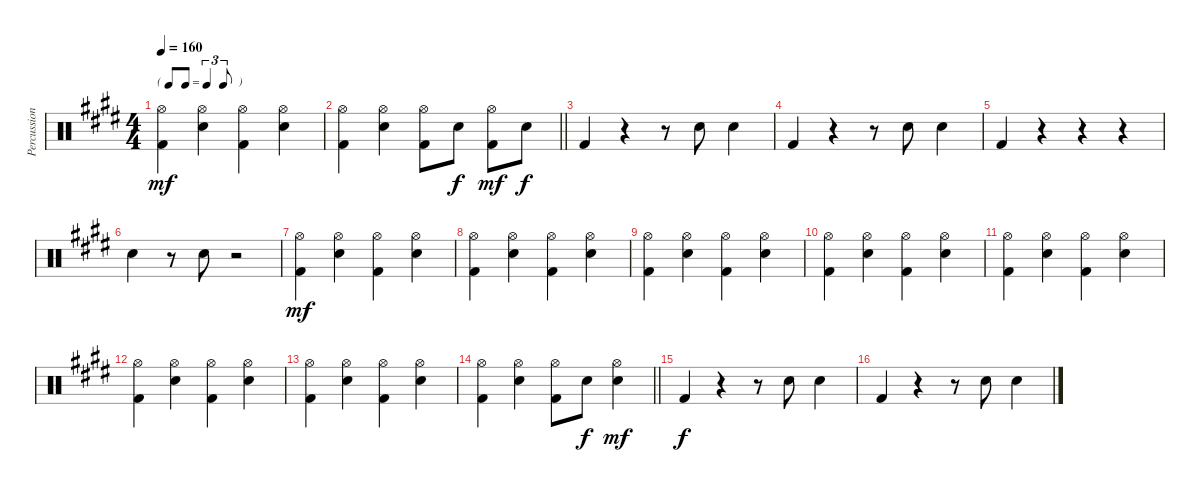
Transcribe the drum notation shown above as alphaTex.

\track ("Percussion" "Percussion") {instrument percussion}
\staff {score}
\articulation defaults
\ts (4 4)
\tf triplet8th
\tempo 160
\clef neutral
\ks e
("Hi-Hat (open)" "Kick (hit) 2").4{dy mf} ("Hi-Hat (open)" "Snare (hit) 2").4 ("Hi-Hat (open)" "Kick (hit) 2").4 ("Hi-Hat (open)" "Snare (hit) 2").4 |
\barLineRight lightlight
("Hi-Hat (open)" "Kick (hit) 2").4 ("Hi-Hat (open)" "Snare (hit) 2").4 ("Hi-Hat (open)" "Kick (hit) 2").8 "Snare (hit) 2".8{dy f} ("Hi-Hat (open)" "Kick (hit) 2").8{dy mf} "Snare (hit) 2".8{dy f} |
"Kick (hit) 2".4 r.4 r.8 "Snare (hit) 2".8 "Snare (hit) 2".4 |
"Kick (hit) 2".4 r.4 r.8 "Snare (hit) 2".8 "Snare (hit) 2".4 |
"Kick (hit) 2".4 r.4 r.4 r.4 |
"Snare (hit) 2".4 r.8 "Snare (hit) 2".8 r.2 |
("Hi-Hat (open)" "Kick (hit) 2").4{dy mf} ("Hi-Hat (open)" "Snare (hit) 2").4 ("Hi-Hat (open)" "Kick (hit) 2").4 ("Hi-Hat (open)" "Snare (hit) 2").4 |
("Hi-Hat (open)" "Kick (hit) 2").4 ("Hi-Hat (open)" "Snare (hit) 2").4 ("Hi-Hat (open)" "Kick (hit) 2").4 ("Hi-Hat (open)" "Snare (hit) 2").4 |
("Hi-Hat (open)" "Kick (hit) 2").4 ("Hi-Hat (open)" "Snare (hit) 2").4 ("Hi-Hat (open)" "Kick (hit) 2").4 ("Hi-Hat (open)" "Snare (hit) 2").4 |
("Hi-Hat (open)" "Kick (hit) 2").4 ("Hi-Hat (open)" "Snare (hit) 2").4 ("Hi-Hat (open)" "Kick (hit) 2").4 ("Hi-Hat (open)" "Snare (hit) 2").4 |
("Hi-Hat (open)" "Kick (hit) 2").4 ("Hi-Hat (open)" "Snare (hit) 2").4 ("Hi-Hat (open)" "Kick (hit) 2").4 ("Hi-Hat (open)" "Snare (hit) 2").4 |
("Hi-Hat (open)" "Kick (hit) 2").4 ("Hi-Hat (open)" "Snare (hit) 2").4 ("Hi-Hat (open)" "Kick (hit) 2").4 ("Hi-Hat (open)" "Snare (hit) 2").4 |
("Hi-Hat (open)" "Kick (hit) 2").4 ("Hi-Hat (open)" "Snare (hit) 2").4 ("Hi-Hat (open)" "Kick (hit) 2").4 ("Hi-Hat (open)" "Snare (hit) 2").4 |
\barLineRight lightlight
("Hi-Hat (open)" "Kick (hit) 2").4 ("Hi-Hat (open)" "Snare (hit) 2").4 ("Hi-Hat (open)" "Kick (hit) 2").8 "Snare (hit) 2".8{dy f} ("Hi-Hat (open)" "Snare (hit) 2").4{dy mf} |
"Kick (hit) 2".4{dy f} r.4 r.8 "Snare (hit) 2".8 "Snare (hit) 2".4 |
"Kick (hit) 2".4 r.4 r.8 "Snare (hit) 2".8 "Snare (hit) 2".4
